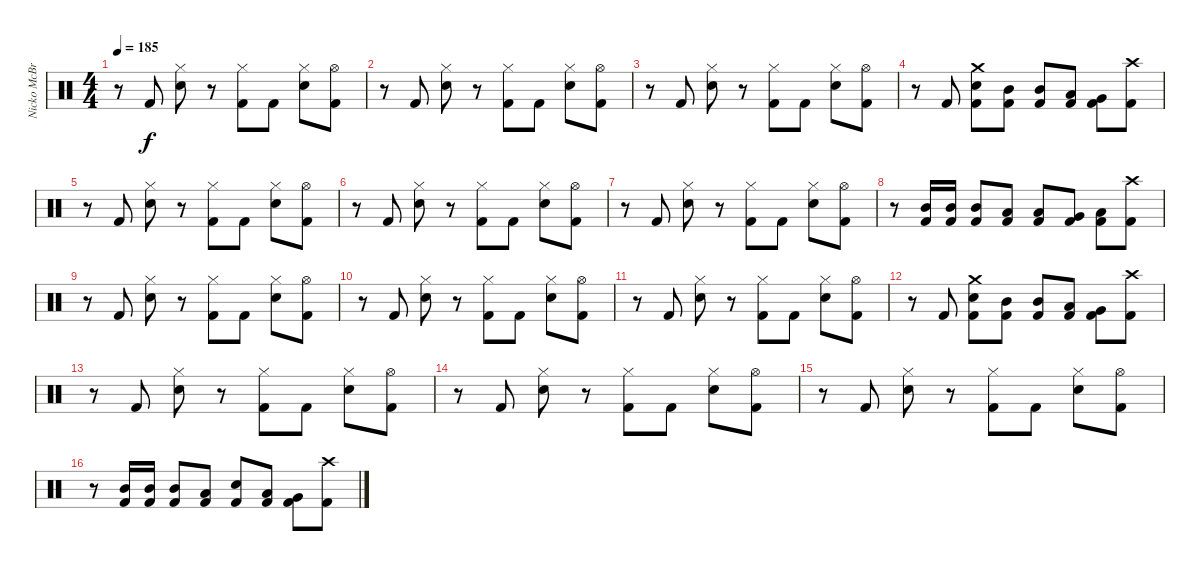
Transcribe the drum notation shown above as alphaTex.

\track ("Nicko McBrain" "Nicko McBr") {instrument percussion}
\staff {score}
\articulation defaults
\ts (4 4)
\tempo 185
\clef neutral
\ks c
r.8{dy f} "Kick (hit) 2".8 ("Hi-Hat (closed)" "Snare (hit) 2").8 r.8 ("Hi-Hat (closed)" "Kick (hit) 2").8 "Kick (hit) 2".8 ("Hi-Hat (closed)" "Snare (hit) 2").8 ("Hi-Hat (open)" "Kick (hit) 2").8 |
r.8 "Kick (hit) 2".8 ("Hi-Hat (closed)" "Snare (hit) 2").8 r.8 ("Hi-Hat (closed)" "Kick (hit) 2").8 "Kick (hit) 2".8 ("Hi-Hat (closed)" "Snare (hit) 2").8 ("Hi-Hat (open)" "Kick (hit) 2").8 |
r.8 "Kick (hit) 2".8 ("Hi-Hat (closed)" "Snare (hit) 2").8 r.8 ("Hi-Hat (closed)" "Kick (hit) 2").8 "Kick (hit) 2".8 ("Hi-Hat (closed)" "Snare (hit) 2").8 ("Hi-Hat (open)" "Kick (hit) 2").8 |
r.8 "Kick (hit) 2".8 ("Crash medium (hit)" "Snare (hit) 2" "Kick (hit) 2").8 ("Mid Tom (hit)" "Kick (hit) 2").8 ("Mid Tom (hit)" "Kick (hit) 2").8 ("Low Tom (hit)" "Kick (hit) 2").8 ("Very Low Tom (hit)" "Kick (hit) 2").8 ("Crash high (hit)" "Kick (hit) 2").8 |
r.8 "Kick (hit) 2".8 ("Hi-Hat (closed)" "Snare (hit) 2").8 r.8 ("Hi-Hat (closed)" "Kick (hit) 2").8 "Kick (hit) 2".8 ("Hi-Hat (closed)" "Snare (hit) 2").8 ("Hi-Hat (open)" "Kick (hit) 2").8 |
r.8 "Kick (hit) 2".8 ("Hi-Hat (closed)" "Snare (hit) 2").8 r.8 ("Hi-Hat (closed)" "Kick (hit) 2").8 "Kick (hit) 2".8 ("Hi-Hat (closed)" "Snare (hit) 2").8 ("Hi-Hat (open)" "Kick (hit) 2").8 |
r.8 "Kick (hit) 2".8 ("Hi-Hat (closed)" "Snare (hit) 2").8 r.8 ("Hi-Hat (closed)" "Kick (hit) 2").8 "Kick (hit) 2".8 ("Hi-Hat (closed)" "Snare (hit) 2").8 ("Hi-Hat (open)" "Kick (hit) 2").8 |
r.8 ("Mid Tom (hit)" "Kick (hit) 2").16 ("Mid Tom (hit)" "Kick (hit) 2").16 ("Mid Tom (hit)" "Kick (hit) 2").8 ("Low Tom (hit)" "Kick (hit) 2").8 ("Low Tom (hit)" "Kick (hit) 2").8 ("Very Low Tom (hit)" "Kick (hit) 2").8 ("Low Floor Tom (hit)" "Kick (hit) 2").8 ("Crash high (hit)" "Kick (hit) 2").8 |
r.8 "Kick (hit) 2".8 ("Hi-Hat (closed)" "Snare (hit) 2").8 r.8 ("Hi-Hat (closed)" "Kick (hit) 2").8 "Kick (hit) 2".8 ("Hi-Hat (closed)" "Snare (hit) 2").8 ("Hi-Hat (open)" "Kick (hit) 2").8 |
r.8 "Kick (hit) 2".8 ("Hi-Hat (closed)" "Snare (hit) 2").8 r.8 ("Hi-Hat (closed)" "Kick (hit) 2").8 "Kick (hit) 2".8 ("Hi-Hat (closed)" "Snare (hit) 2").8 ("Hi-Hat (open)" "Kick (hit) 2").8 |
r.8 "Kick (hit) 2".8 ("Hi-Hat (closed)" "Snare (hit) 2").8 r.8 ("Hi-Hat (closed)" "Kick (hit) 2").8 "Kick (hit) 2".8 ("Hi-Hat (closed)" "Snare (hit) 2").8 ("Hi-Hat (open)" "Kick (hit) 2").8 |
r.8 "Kick (hit) 2".8 ("Crash medium (hit)" "Snare (hit) 2" "Kick (hit) 2").8 ("Mid Tom (hit)" "Kick (hit) 2").8 ("Mid Tom (hit)" "Kick (hit) 2").8 ("Low Tom (hit)" "Kick (hit) 2").8 ("Very Low Tom (hit)" "Kick (hit) 2").8 ("Crash high (hit)" "Kick (hit) 2").8 |
r.8 "Kick (hit) 2".8 ("Hi-Hat (closed)" "Snare (hit) 2").8 r.8 ("Hi-Hat (closed)" "Kick (hit) 2").8 "Kick (hit) 2".8 ("Hi-Hat (closed)" "Snare (hit) 2").8 ("Hi-Hat (open)" "Kick (hit) 2").8 |
r.8 "Kick (hit) 2".8 ("Hi-Hat (closed)" "Snare (hit) 2").8 r.8 ("Hi-Hat (closed)" "Kick (hit) 2").8 "Kick (hit) 2".8 ("Hi-Hat (closed)" "Snare (hit) 2").8 ("Hi-Hat (open)" "Kick (hit) 2").8 |
r.8 "Kick (hit) 2".8 ("Hi-Hat (closed)" "Snare (hit) 2").8 r.8 ("Hi-Hat (closed)" "Kick (hit) 2").8 "Kick (hit) 2".8 ("Hi-Hat (closed)" "Snare (hit) 2").8 ("Hi-Hat (open)" "Kick (hit) 2").8 |
r.8 ("Mid Tom (hit)" "Kick (hit) 2").16 ("Mid Tom (hit)" "Kick (hit) 2").16 ("Mid Tom (hit)" "Kick (hit) 2").8 ("Low Tom (hit)" "Kick (hit) 2").8 ("Snare (hit) 2" "Kick (hit) 2").8 ("Low Tom (hit)" "Kick (hit) 2").8 ("Very Low Tom (hit)" "Kick (hit) 2").8 ("Crash high (hit)" "Kick (hit) 2").8
